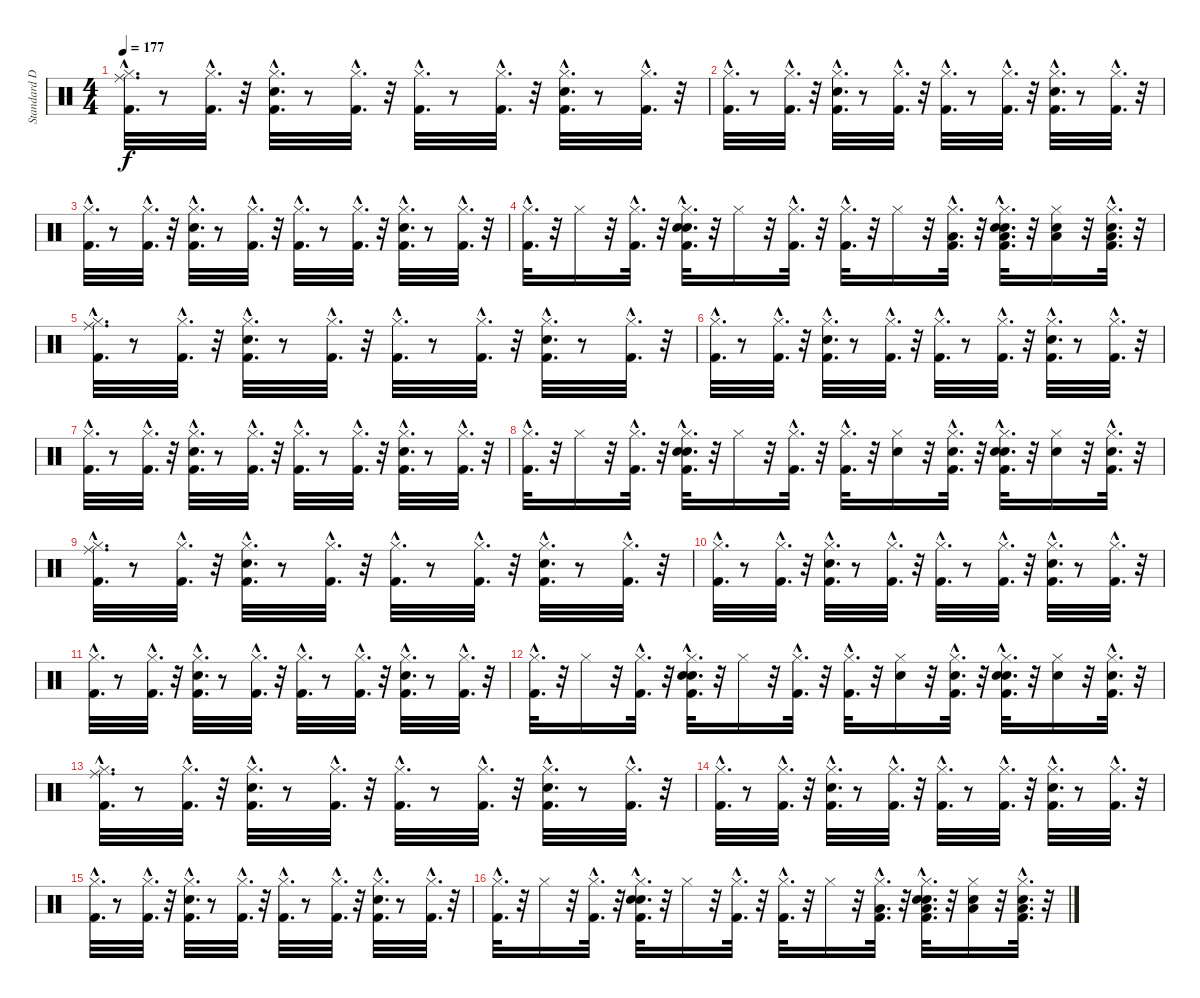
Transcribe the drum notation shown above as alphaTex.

\track ("Standard Drums" "Standard D") {instrument percussion}
\staff {score}
\articulation defaults
\ts (4 4)
\tempo 177
\clef neutral
\ks c
("Kick (hit) 2"{hac} "Hi-Hat (closed)"{hac} "Ride (middle)"{hac}).32{d dy f} r.8 ("Kick (hit) 2"{hac} "Hi-Hat (closed)"{hac}).32{d} r.32 ("Kick (hit) 2"{hac} "Snare (hit) 2"{hac} "Hi-Hat (closed)"{hac}).32{d} r.8 ("Kick (hit) 2"{hac} "Hi-Hat (closed)"{hac}).32{d} r.32 ("Kick (hit) 2"{hac} "Hi-Hat (closed)"{hac}).32{d} r.8 ("Kick (hit) 2"{hac} "Hi-Hat (closed)"{hac}).32{d} r.32 ("Kick (hit) 2"{hac} "Snare (hit) 2"{hac} "Hi-Hat (closed)"{hac}).32{d} r.8 ("Kick (hit) 2"{hac} "Hi-Hat (closed)"{hac}).32{d} r.32 |
("Kick (hit) 2"{hac} "Hi-Hat (closed)"{hac}).32{d} r.8 ("Kick (hit) 2"{hac} "Hi-Hat (closed)"{hac}).32{d} r.32 ("Kick (hit) 2"{hac} "Snare (hit) 2"{hac} "Hi-Hat (closed)"{hac}).32{d} r.8 ("Kick (hit) 2"{hac} "Hi-Hat (closed)"{hac}).32{d} r.32 ("Kick (hit) 2"{hac} "Hi-Hat (closed)"{hac}).32{d} r.8 ("Kick (hit) 2"{hac} "Hi-Hat (closed)"{hac}).32{d} r.32 ("Kick (hit) 2"{hac} "Snare (hit) 2"{hac} "Hi-Hat (closed)"{hac}).32{d} r.8 ("Kick (hit) 2"{hac} "Hi-Hat (closed)"{hac}).32{d} r.32 |
("Kick (hit) 2"{hac} "Hi-Hat (closed)"{hac}).32{d} r.8 ("Kick (hit) 2"{hac} "Hi-Hat (closed)"{hac}).32{d} r.32 ("Kick (hit) 2"{hac} "Snare (hit) 2"{hac} "Hi-Hat (closed)"{hac}).32{d} r.8 ("Kick (hit) 2"{hac} "Hi-Hat (closed)"{hac}).32{d} r.32 ("Kick (hit) 2"{hac} "Hi-Hat (closed)"{hac}).32{d} r.8 ("Kick (hit) 2"{hac} "Hi-Hat (closed)"{hac}).32{d} r.32 ("Kick (hit) 2"{hac} "Snare (hit) 2"{hac} "Hi-Hat (closed)"{hac}).32{d} r.8 ("Kick (hit) 2"{hac} "Hi-Hat (closed)"{hac}).32{d} r.32 |
("Kick (hit) 2"{hac} "Hi-Hat (closed)"{hac}).32{d} r.32 "Hi-Hat (closed)".16 r.32 ("Kick (hit) 2"{hac} "Hi-Hat (closed)"{hac}).32{d} r.32 ("Kick (hit) 2"{hac} "Snare (hit) 2"{hac} "Hi-Hat (closed)"{hac} "Hand Clap (hit)"{hac}).32{d} r.32 "Hi-Hat (closed)".16 r.32 ("Kick (hit) 2"{hac} "Hi-Hat (closed)"{hac}).32{d} r.32 ("Kick (hit) 2"{hac} "Hi-Hat (closed)"{hac}).32{d} r.32 "Hi-Hat (closed)".16 r.32 ("Kick (hit) 2"{hac} "Hi-Hat (closed)"{hac} "Low Tom (hit)"{hac}).32{d} r.32 ("Kick (hit) 2"{hac} "Snare (hit) 2"{hac} "Hi-Hat (closed)"{hac} "Low Tom (hit)"{hac} "Hand Clap (hit)"{hac}).32{d} r.32 ("Snare (hit) 2" "Hi-Hat (closed)" "Low Tom (hit)").16 r.32 ("Kick (hit) 2"{hac} "Snare (hit) 2"{hac} "Hi-Hat (closed)"{hac} "Low Tom (hit)"{hac}).32{d} r.32 |
("Kick (hit) 2"{hac} "Hi-Hat (closed)"{hac} "Ride (middle)"{hac}).32{d} r.8 ("Kick (hit) 2"{hac} "Hi-Hat (closed)"{hac}).32{d} r.32 ("Kick (hit) 2"{hac} "Snare (hit) 2"{hac} "Hi-Hat (closed)"{hac}).32{d} r.8 ("Kick (hit) 2"{hac} "Hi-Hat (closed)"{hac}).32{d} r.32 ("Kick (hit) 2"{hac} "Hi-Hat (closed)"{hac}).32{d} r.8 ("Kick (hit) 2"{hac} "Hi-Hat (closed)"{hac}).32{d} r.32 ("Kick (hit) 2"{hac} "Snare (hit) 2"{hac} "Hi-Hat (closed)"{hac}).32{d} r.8 ("Kick (hit) 2"{hac} "Hi-Hat (closed)"{hac}).32{d} r.32 |
("Kick (hit) 2"{hac} "Hi-Hat (closed)"{hac}).32{d} r.8 ("Kick (hit) 2"{hac} "Hi-Hat (closed)"{hac}).32{d} r.32 ("Kick (hit) 2"{hac} "Snare (hit) 2"{hac} "Hi-Hat (closed)"{hac}).32{d} r.8 ("Kick (hit) 2"{hac} "Hi-Hat (closed)"{hac}).32{d} r.32 ("Kick (hit) 2"{hac} "Hi-Hat (closed)"{hac}).32{d} r.8 ("Kick (hit) 2"{hac} "Hi-Hat (closed)"{hac}).32{d} r.32 ("Kick (hit) 2"{hac} "Snare (hit) 2"{hac} "Hi-Hat (closed)"{hac}).32{d} r.8 ("Kick (hit) 2"{hac} "Hi-Hat (closed)"{hac}).32{d} r.32 |
("Kick (hit) 2"{hac} "Hi-Hat (closed)"{hac}).32{d} r.8 ("Kick (hit) 2"{hac} "Hi-Hat (closed)"{hac}).32{d} r.32 ("Kick (hit) 2"{hac} "Snare (hit) 2"{hac} "Hi-Hat (closed)"{hac}).32{d} r.8 ("Kick (hit) 2"{hac} "Hi-Hat (closed)"{hac}).32{d} r.32 ("Kick (hit) 2"{hac} "Hi-Hat (closed)"{hac}).32{d} r.8 ("Kick (hit) 2"{hac} "Hi-Hat (closed)"{hac}).32{d} r.32 ("Kick (hit) 2"{hac} "Snare (hit) 2"{hac} "Hi-Hat (closed)"{hac}).32{d} r.8 ("Kick (hit) 2"{hac} "Hi-Hat (closed)"{hac}).32{d} r.32 |
("Kick (hit) 2"{hac} "Hi-Hat (closed)"{hac}).32{d} r.32 "Hi-Hat (closed)".16 r.32 ("Kick (hit) 2"{hac} "Hi-Hat (closed)"{hac}).32{d} r.32 ("Kick (hit) 2"{hac} "Snare (hit) 2"{hac} "Hi-Hat (closed)"{hac} "Hand Clap (hit)"{hac}).32{d} r.32 "Hi-Hat (closed)".16 r.32 ("Kick (hit) 2"{hac} "Hi-Hat (closed)"{hac}).32{d} r.32 ("Kick (hit) 2"{hac} "Hi-Hat (closed)"{hac}).32{d} r.32 ("Snare (hit) 2" "Hi-Hat (closed)").16 r.32 ("Kick (hit) 2"{hac} "Snare (hit) 2"{hac} "Hi-Hat (closed)"{hac}).32{d} r.32 ("Kick (hit) 2"{hac} "Snare (hit) 2"{hac} "Hi-Hat (closed)"{hac} "Hand Clap (hit)"{hac}).32{d} r.32 ("Snare (hit) 2" "Hi-Hat (closed)").16 r.32 ("Kick (hit) 2"{hac} "Snare (hit) 2"{hac} "Hi-Hat (closed)"{hac}).32{d} r.32 |
("Kick (hit) 2"{hac} "Hi-Hat (closed)"{hac} "Ride (middle)"{hac}).32{d} r.8 ("Kick (hit) 2"{hac} "Hi-Hat (closed)"{hac}).32{d} r.32 ("Kick (hit) 2"{hac} "Snare (hit) 2"{hac} "Hi-Hat (closed)"{hac}).32{d} r.8 ("Kick (hit) 2"{hac} "Hi-Hat (closed)"{hac}).32{d} r.32 ("Kick (hit) 2"{hac} "Hi-Hat (closed)"{hac}).32{d} r.8 ("Kick (hit) 2"{hac} "Hi-Hat (closed)"{hac}).32{d} r.32 ("Kick (hit) 2"{hac} "Snare (hit) 2"{hac} "Hi-Hat (closed)"{hac}).32{d} r.8 ("Kick (hit) 2"{hac} "Hi-Hat (closed)"{hac}).32{d} r.32 |
("Kick (hit) 2"{hac} "Hi-Hat (closed)"{hac}).32{d} r.8 ("Kick (hit) 2"{hac} "Hi-Hat (closed)"{hac}).32{d} r.32 ("Kick (hit) 2"{hac} "Snare (hit) 2"{hac} "Hi-Hat (closed)"{hac}).32{d} r.8 ("Kick (hit) 2"{hac} "Hi-Hat (closed)"{hac}).32{d} r.32 ("Kick (hit) 2"{hac} "Hi-Hat (closed)"{hac}).32{d} r.8 ("Kick (hit) 2"{hac} "Hi-Hat (closed)"{hac}).32{d} r.32 ("Kick (hit) 2"{hac} "Snare (hit) 2"{hac} "Hi-Hat (closed)"{hac}).32{d} r.8 ("Kick (hit) 2"{hac} "Hi-Hat (closed)"{hac}).32{d} r.32 |
("Kick (hit) 2"{hac} "Hi-Hat (closed)"{hac}).32{d} r.8 ("Kick (hit) 2"{hac} "Hi-Hat (closed)"{hac}).32{d} r.32 ("Kick (hit) 2"{hac} "Snare (hit) 2"{hac} "Hi-Hat (closed)"{hac}).32{d} r.8 ("Kick (hit) 2"{hac} "Hi-Hat (closed)"{hac}).32{d} r.32 ("Kick (hit) 2"{hac} "Hi-Hat (closed)"{hac}).32{d} r.8 ("Kick (hit) 2"{hac} "Hi-Hat (closed)"{hac}).32{d} r.32 ("Kick (hit) 2"{hac} "Snare (hit) 2"{hac} "Hi-Hat (closed)"{hac}).32{d} r.8 ("Kick (hit) 2"{hac} "Hi-Hat (closed)"{hac}).32{d} r.32 |
("Kick (hit) 2"{hac} "Hi-Hat (closed)"{hac}).32{d} r.32 "Hi-Hat (closed)".16 r.32 ("Kick (hit) 2"{hac} "Hi-Hat (closed)"{hac}).32{d} r.32 ("Kick (hit) 2"{hac} "Snare (hit) 2"{hac} "Hi-Hat (closed)"{hac} "Hand Clap (hit)"{hac}).32{d} r.32 "Hi-Hat (closed)".16 r.32 ("Kick (hit) 2"{hac} "Hi-Hat (closed)"{hac}).32{d} r.32 ("Kick (hit) 2"{hac} "Hi-Hat (closed)"{hac}).32{d} r.32 ("Snare (hit) 2" "Hi-Hat (closed)").16 r.32 ("Kick (hit) 2"{hac} "Snare (hit) 2"{hac} "Hi-Hat (closed)"{hac}).32{d} r.32 ("Kick (hit) 2"{hac} "Snare (hit) 2"{hac} "Hi-Hat (closed)"{hac} "Hand Clap (hit)"{hac}).32{d} r.32 ("Snare (hit) 2" "Hi-Hat (closed)").16 r.32 ("Kick (hit) 2"{hac} "Snare (hit) 2"{hac} "Hi-Hat (closed)"{hac}).32{d} r.32 |
("Kick (hit) 2"{hac} "Hi-Hat (closed)"{hac} "Ride (middle)"{hac}).32{d} r.8 ("Kick (hit) 2"{hac} "Hi-Hat (closed)"{hac}).32{d} r.32 ("Kick (hit) 2"{hac} "Snare (hit) 2"{hac} "Hi-Hat (closed)"{hac}).32{d} r.8 ("Kick (hit) 2"{hac} "Hi-Hat (closed)"{hac}).32{d} r.32 ("Kick (hit) 2"{hac} "Hi-Hat (closed)"{hac}).32{d} r.8 ("Kick (hit) 2"{hac} "Hi-Hat (closed)"{hac}).32{d} r.32 ("Kick (hit) 2"{hac} "Snare (hit) 2"{hac} "Hi-Hat (closed)"{hac}).32{d} r.8 ("Kick (hit) 2"{hac} "Hi-Hat (closed)"{hac}).32{d} r.32 |
("Kick (hit) 2"{hac} "Hi-Hat (closed)"{hac}).32{d} r.8 ("Kick (hit) 2"{hac} "Hi-Hat (closed)"{hac}).32{d} r.32 ("Kick (hit) 2"{hac} "Snare (hit) 2"{hac} "Hi-Hat (closed)"{hac}).32{d} r.8 ("Kick (hit) 2"{hac} "Hi-Hat (closed)"{hac}).32{d} r.32 ("Kick (hit) 2"{hac} "Hi-Hat (closed)"{hac}).32{d} r.8 ("Kick (hit) 2"{hac} "Hi-Hat (closed)"{hac}).32{d} r.32 ("Kick (hit) 2"{hac} "Snare (hit) 2"{hac} "Hi-Hat (closed)"{hac}).32{d} r.8 ("Kick (hit) 2"{hac} "Hi-Hat (closed)"{hac}).32{d} r.32 |
("Kick (hit) 2"{hac} "Hi-Hat (closed)"{hac}).32{d} r.8 ("Kick (hit) 2"{hac} "Hi-Hat (closed)"{hac}).32{d} r.32 ("Kick (hit) 2"{hac} "Snare (hit) 2"{hac} "Hi-Hat (closed)"{hac}).32{d} r.8 ("Kick (hit) 2"{hac} "Hi-Hat (closed)"{hac}).32{d} r.32 ("Kick (hit) 2"{hac} "Hi-Hat (closed)"{hac}).32{d} r.8 ("Kick (hit) 2"{hac} "Hi-Hat (closed)"{hac}).32{d} r.32 ("Kick (hit) 2"{hac} "Snare (hit) 2"{hac} "Hi-Hat (closed)"{hac}).32{d} r.8 ("Kick (hit) 2"{hac} "Hi-Hat (closed)"{hac}).32{d} r.32 |
("Kick (hit) 2"{hac} "Hi-Hat (closed)"{hac}).32{d} r.32 "Hi-Hat (closed)".16 r.32 ("Kick (hit) 2"{hac} "Hi-Hat (closed)"{hac}).32{d} r.32 ("Kick (hit) 2"{hac} "Snare (hit) 2"{hac} "Hi-Hat (closed)"{hac} "Hand Clap (hit)"{hac}).32{d} r.32 "Hi-Hat (closed)".16 r.32 ("Kick (hit) 2"{hac} "Hi-Hat (closed)"{hac}).32{d} r.32 ("Kick (hit) 2"{hac} "Hi-Hat (closed)"{hac}).32{d} r.32 "Hi-Hat (closed)".16 r.32 ("Kick (hit) 2"{hac} "Hi-Hat (closed)"{hac} "Low Tom (hit)"{hac}).32{d} r.32 ("Kick (hit) 2"{hac} "Snare (hit) 2"{hac} "Hi-Hat (closed)"{hac} "Low Tom (hit)"{hac} "Hand Clap (hit)"{hac}).32{d} r.32 ("Snare (hit) 2" "Hi-Hat (closed)" "Low Tom (hit)").16 r.32 ("Kick (hit) 2"{hac} "Snare (hit) 2"{hac} "Hi-Hat (closed)"{hac} "Low Tom (hit)"{hac}).32{d} r.32
